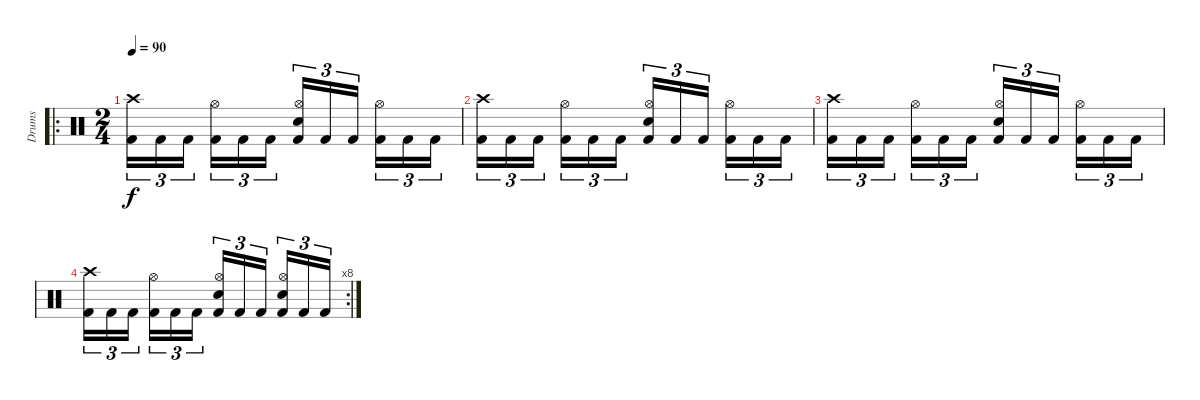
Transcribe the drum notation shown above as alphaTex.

\track ("Drums" "Drums") {instrument percussion}
\staff {score}
\articulation defaults
\ro
\ts (2 4)
\tempo 90
\clef neutral
\ks c
("Crash high (hit)" "Kick (hit) 2").16{tu (3 2) dy f} "Kick (hit) 2".16{tu (3 2)} "Kick (hit) 2".16{tu (3 2) beam splitsecondary} ("Hi-Hat (open)" "Kick (hit) 2").16{tu (3 2)} "Kick (hit) 2".16{tu (3 2)} "Kick (hit) 2".16{tu (3 2)} ("Hi-Hat (open)" "Snare (hit) 2" "Kick (hit) 2").16{tu (3 2)} "Kick (hit) 2".16{tu (3 2)} "Kick (hit) 2".16{tu (3 2) beam splitsecondary} ("Hi-Hat (open)" "Kick (hit) 2").16{tu (3 2)} "Kick (hit) 2".16{tu (3 2)} "Kick (hit) 2".16{tu (3 2)} |
("Crash high (hit)" "Kick (hit) 2").16{tu (3 2)} "Kick (hit) 2".16{tu (3 2)} "Kick (hit) 2".16{tu (3 2) beam splitsecondary} ("Hi-Hat (open)" "Kick (hit) 2").16{tu (3 2)} "Kick (hit) 2".16{tu (3 2)} "Kick (hit) 2".16{tu (3 2)} ("Hi-Hat (open)" "Snare (hit) 2" "Kick (hit) 2").16{tu (3 2)} "Kick (hit) 2".16{tu (3 2)} "Kick (hit) 2".16{tu (3 2) beam splitsecondary} ("Hi-Hat (open)" "Kick (hit) 2").16{tu (3 2)} "Kick (hit) 2".16{tu (3 2)} "Kick (hit) 2".16{tu (3 2)} |
("Crash high (hit)" "Kick (hit) 2").16{tu (3 2)} "Kick (hit) 2".16{tu (3 2)} "Kick (hit) 2".16{tu (3 2) beam splitsecondary} ("Hi-Hat (open)" "Kick (hit) 2").16{tu (3 2)} "Kick (hit) 2".16{tu (3 2)} "Kick (hit) 2".16{tu (3 2)} ("Hi-Hat (open)" "Snare (hit) 2" "Kick (hit) 2").16{tu (3 2)} "Kick (hit) 2".16{tu (3 2)} "Kick (hit) 2".16{tu (3 2) beam splitsecondary} ("Hi-Hat (open)" "Kick (hit) 2").16{tu (3 2)} "Kick (hit) 2".16{tu (3 2)} "Kick (hit) 2".16{tu (3 2)} |
\rc 8
("Crash high (hit)" "Kick (hit) 2").16{tu (3 2)} "Kick (hit) 2".16{tu (3 2)} "Kick (hit) 2".16{tu (3 2) beam splitsecondary} ("Hi-Hat (open)" "Kick (hit) 2").16{tu (3 2)} "Kick (hit) 2".16{tu (3 2)} "Kick (hit) 2".16{tu (3 2)} ("Hi-Hat (open)" "Snare (hit) 2" "Kick (hit) 2").16{tu (3 2)} "Kick (hit) 2".16{tu (3 2)} "Kick (hit) 2".16{tu (3 2) beam splitsecondary} ("Hi-Hat (open)" "Snare (hit) 2" "Kick (hit) 2").16{tu (3 2)} "Kick (hit) 2".16{tu (3 2)} "Kick (hit) 2".16{tu (3 2)}
